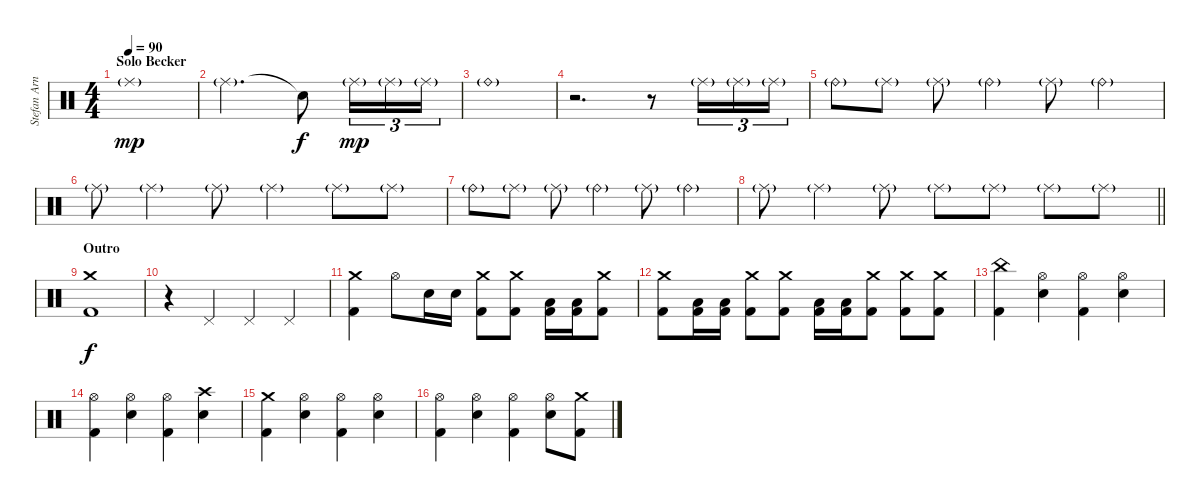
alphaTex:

\track ("Stefan Arnold" "Stefan Arn") {instrument percussion}
\staff {score}
\articulation defaults
\ts (4 4)
\section ("" "Solo Becker")
\tempo 90
\clef neutral
\ks c "Ride (middle)"{g}.1{dy mp}
|
"Ride (middle)"{g}.2{d} "Snare (hit)"{t}.8{dy f} "Ride (middle)"{g}.16{tu (3 2) dy mp} "Ride (middle)"{g}.16{tu (3 2)} "Ride (middle)"{g}.16{tu (3 2)} |
"Ride (bell)"{g}.1 |
r.2{d} r.8 "Ride (middle)"{g}.16{tu (3 2)} "Ride (middle)"{g}.16{tu (3 2)} "Ride (middle)"{g}.16{tu (3 2)} |
"Ride (bell)"{g}.8 "Ride (middle)"{g}.8 "Ride (middle)"{g}.8 "Ride (bell)"{g}.4 "Ride (middle)"{g}.8 "Ride (bell)"{g}.4 |
"Ride (middle)"{g}.8 "Ride (middle)"{g}.4 "Ride (middle)"{g}.8 "Ride (middle)"{g}.4 "Ride (middle)"{g}.8 "Ride (middle)"{g}.8 |
"Ride (bell)"{g}.8 "Ride (middle)"{g}.8 "Ride (middle)"{g}.8 "Ride (bell)"{g}.4 "Ride (middle)"{g}.8 "Ride (bell)"{g}.4 |
\barLineRight lightlight "Ride (middle)"{g}.8 "Ride (middle)"{g}.4 "Ride (middle)"{g}.8 "Ride (middle)"{g}.8 "Ride (middle)"{g}.8 "Ride (middle)"{g}.8 "Ride (middle)"{g}.8
|
\section ("" "Outro")
("Crash medium (hit)" "Kick (hit) 2").1{dy f} |
r.4 "Pedal Hi-Hat (hit)".4 "Pedal Hi-Hat (hit)".4 "Pedal Hi-Hat (hit)".4 |
("Crash medium (hit)" "Kick (hit) 2").4 "Hi-Hat (open)".8 "Electric Snare (hit)".16 "Electric Snare (hit)".16 ("Crash medium (hit)" "Kick (hit) 2").8 ("Crash medium (hit)" "Kick (hit) 2").8 ("Low Tom (hit)" "Kick (hit) 2").16 ("Low Tom (hit)" "Kick (hit) 2").16 ("Crash medium (hit)" "Kick (hit) 2").8 |
("Crash medium (hit)" "Kick (hit) 2").8 ("Low Tom (hit)" "Kick (hit) 2").16 ("Low Tom (hit)" "Kick (hit) 2").16 ("Crash medium (hit)" "Kick (hit) 2").8 ("Crash medium (hit)" "Kick (hit) 2").8 ("Low Tom (hit)" "Kick (hit) 2").16 ("Low Tom (hit)" "Kick (hit) 2").16 ("Crash medium (hit)" "Kick (hit) 2").8 ("Crash medium (hit)" "Kick (hit) 2").8 ("Crash medium (hit)" "Kick (hit) 2").8 |
("China (hit)" "Kick (hit) 2").4 ("Hi-Hat (open)" "Electric Snare (hit)").4 ("Hi-Hat (open)" "Kick (hit) 2").4 ("Hi-Hat (open)" "Electric Snare (hit)").4 |
("Hi-Hat (open)" "Kick (hit) 2").4 ("Hi-Hat (open)" "Electric Snare (hit)").4 ("Hi-Hat (open)" "Kick (hit) 2").4 ("Crash high (hit)" "Electric Snare (hit)").4 |
("Crash medium (hit)" "Kick (hit) 2").4 ("Hi-Hat (open)" "Electric Snare (hit)").4 ("Hi-Hat (open)" "Kick (hit) 2").4 ("Hi-Hat (open)" "Electric Snare (hit)").4 |
("Hi-Hat (open)" "Kick (hit) 2").4 ("Hi-Hat (open)" "Electric Snare (hit)").4 ("Hi-Hat (open)" "Kick (hit) 2").4 ("Hi-Hat (open)" "Electric Snare (hit)").8 ("Crash medium (hit)" "Kick (hit) 2").8
